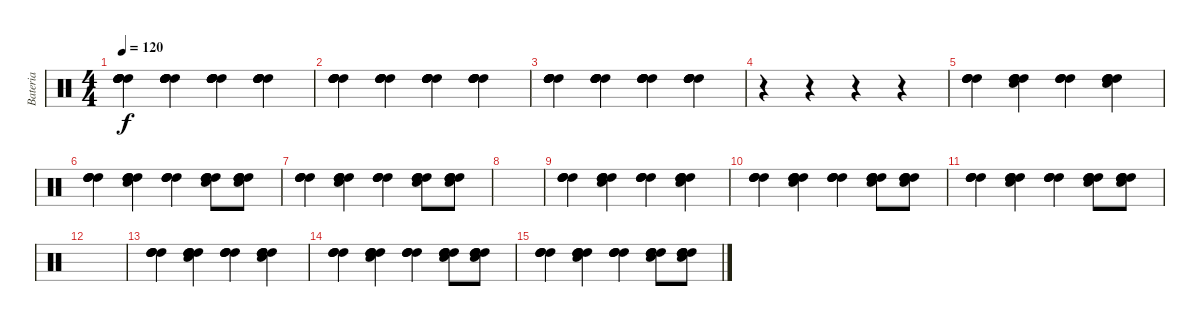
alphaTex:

\track ("Bateria" "Bateria") {instrument percussion}
\staff {score}
\articulation defaults
\ts (4 4)
\tempo 120
\clef neutral
\ks c
("High Tom (hit)" "High Tom (hit)" "High Tom (hit)" "High Tom (hit)" "High Tom (hit)" "High Tom (hit)").4{dy f} ("High Tom (hit)" "High Tom (hit)" "High Tom (hit)" "High Tom (hit)" "High Tom (hit)" "High Tom (hit)").4 ("High Tom (hit)" "High Tom (hit)" "High Tom (hit)" "High Tom (hit)" "High Tom (hit)" "High Tom (hit)").4 ("High Tom (hit)" "High Tom (hit)" "High Tom (hit)" "High Tom (hit)" "High Tom (hit)" "High Tom (hit)").4 |
("High Tom (hit)" "High Tom (hit)" "High Tom (hit)" "High Tom (hit)" "High Tom (hit)" "High Tom (hit)").4 ("High Tom (hit)" "High Tom (hit)" "High Tom (hit)" "High Tom (hit)" "High Tom (hit)" "High Tom (hit)").4 ("High Tom (hit)" "High Tom (hit)" "High Tom (hit)" "High Tom (hit)" "High Tom (hit)" "High Tom (hit)").4 ("High Tom (hit)" "High Tom (hit)" "High Tom (hit)" "High Tom (hit)" "High Tom (hit)" "High Tom (hit)").4 |
("High Tom (hit)" "High Tom (hit)" "High Tom (hit)" "High Tom (hit)" "High Tom (hit)" "High Tom (hit)").4 ("High Tom (hit)" "High Tom (hit)" "High Tom (hit)" "High Tom (hit)" "High Tom (hit)" "High Tom (hit)").4 ("High Tom (hit)" "High Tom (hit)" "High Tom (hit)" "High Tom (hit)" "High Tom (hit)" "High Tom (hit)").4 ("High Tom (hit)" "High Tom (hit)" "High Tom (hit)" "High Tom (hit)" "High Tom (hit)" "High Tom (hit)").4 |
r.4 r.4 r.4 r.4 |
("High Tom (hit)" "High Tom (hit)" "High Tom (hit)" "High Tom (hit)").4 ("Snare (hit) 2" "High Tom (hit)" "High Tom (hit)" "High Tom (hit)" "High Tom (hit)").4 ("High Tom (hit)" "High Tom (hit)" "High Tom (hit)" "High Tom (hit)").4 ("Snare (hit) 2" "High Tom (hit)" "High Tom (hit)" "High Tom (hit)" "High Tom (hit)").4 |
("High Tom (hit)" "High Tom (hit)" "High Tom (hit)" "High Tom (hit)").4 ("Snare (hit) 2" "High Tom (hit)" "High Tom (hit)" "High Tom (hit)" "High Tom (hit)").4 ("High Tom (hit)" "High Tom (hit)" "High Tom (hit)" "High Tom (hit)").4 ("Snare (hit) 2" "High Tom (hit)" "High Tom (hit)" "High Tom (hit)" "High Tom (hit)").8 ("Snare (hit) 2" "High Tom (hit)" "High Tom (hit)" "High Tom (hit)" "High Tom (hit)").8 |
("High Tom (hit)" "High Tom (hit)" "High Tom (hit)" "High Tom (hit)").4 ("Snare (hit) 2" "High Tom (hit)" "High Tom (hit)" "High Tom (hit)" "High Tom (hit)").4 ("High Tom (hit)" "High Tom (hit)" "High Tom (hit)" "High Tom (hit)").4 ("Snare (hit) 2" "High Tom (hit)" "High Tom (hit)" "High Tom (hit)" "High Tom (hit)").8 ("Snare (hit) 2" "High Tom (hit)" "High Tom (hit)" "High Tom (hit)" "High Tom (hit)").8 |
|
("High Tom (hit)" "High Tom (hit)" "High Tom (hit)" "High Tom (hit)").4 ("Snare (hit) 2" "High Tom (hit)" "High Tom (hit)" "High Tom (hit)" "High Tom (hit)").4 ("High Tom (hit)" "High Tom (hit)" "High Tom (hit)" "High Tom (hit)").4 ("Snare (hit) 2" "High Tom (hit)" "High Tom (hit)" "High Tom (hit)" "High Tom (hit)").4 |
("High Tom (hit)" "High Tom (hit)" "High Tom (hit)" "High Tom (hit)").4 ("Snare (hit) 2" "High Tom (hit)" "High Tom (hit)" "High Tom (hit)" "High Tom (hit)").4 ("High Tom (hit)" "High Tom (hit)" "High Tom (hit)" "High Tom (hit)").4 ("Snare (hit) 2" "High Tom (hit)" "High Tom (hit)" "High Tom (hit)" "High Tom (hit)").8 ("Snare (hit) 2" "High Tom (hit)" "High Tom (hit)" "High Tom (hit)" "High Tom (hit)").8 |
("High Tom (hit)" "High Tom (hit)" "High Tom (hit)" "High Tom (hit)").4 ("Snare (hit) 2" "High Tom (hit)" "High Tom (hit)" "High Tom (hit)" "High Tom (hit)").4 ("High Tom (hit)" "High Tom (hit)" "High Tom (hit)" "High Tom (hit)").4 ("Snare (hit) 2" "High Tom (hit)" "High Tom (hit)" "High Tom (hit)" "High Tom (hit)").8 ("Snare (hit) 2" "High Tom (hit)" "High Tom (hit)" "High Tom (hit)" "High Tom (hit)").8 |
|
("High Tom (hit)" "High Tom (hit)" "High Tom (hit)" "High Tom (hit)").4 ("Snare (hit) 2" "High Tom (hit)" "High Tom (hit)" "High Tom (hit)" "High Tom (hit)").4 ("High Tom (hit)" "High Tom (hit)" "High Tom (hit)" "High Tom (hit)").4 ("Snare (hit) 2" "High Tom (hit)" "High Tom (hit)" "High Tom (hit)" "High Tom (hit)").4 |
("High Tom (hit)" "High Tom (hit)" "High Tom (hit)" "High Tom (hit)").4 ("Snare (hit) 2" "High Tom (hit)" "High Tom (hit)" "High Tom (hit)" "High Tom (hit)").4 ("High Tom (hit)" "High Tom (hit)" "High Tom (hit)" "High Tom (hit)").4 ("Snare (hit) 2" "High Tom (hit)" "High Tom (hit)" "High Tom (hit)" "High Tom (hit)").8 ("Snare (hit) 2" "High Tom (hit)" "High Tom (hit)" "High Tom (hit)" "High Tom (hit)").8 |
("High Tom (hit)" "High Tom (hit)" "High Tom (hit)" "High Tom (hit)").4 ("Snare (hit) 2" "High Tom (hit)" "High Tom (hit)" "High Tom (hit)" "High Tom (hit)").4 ("High Tom (hit)" "High Tom (hit)" "High Tom (hit)" "High Tom (hit)").4 ("Snare (hit) 2" "High Tom (hit)" "High Tom (hit)" "High Tom (hit)" "High Tom (hit)").8 ("Snare (hit) 2" "High Tom (hit)" "High Tom (hit)" "High Tom (hit)" "High Tom (hit)").8
